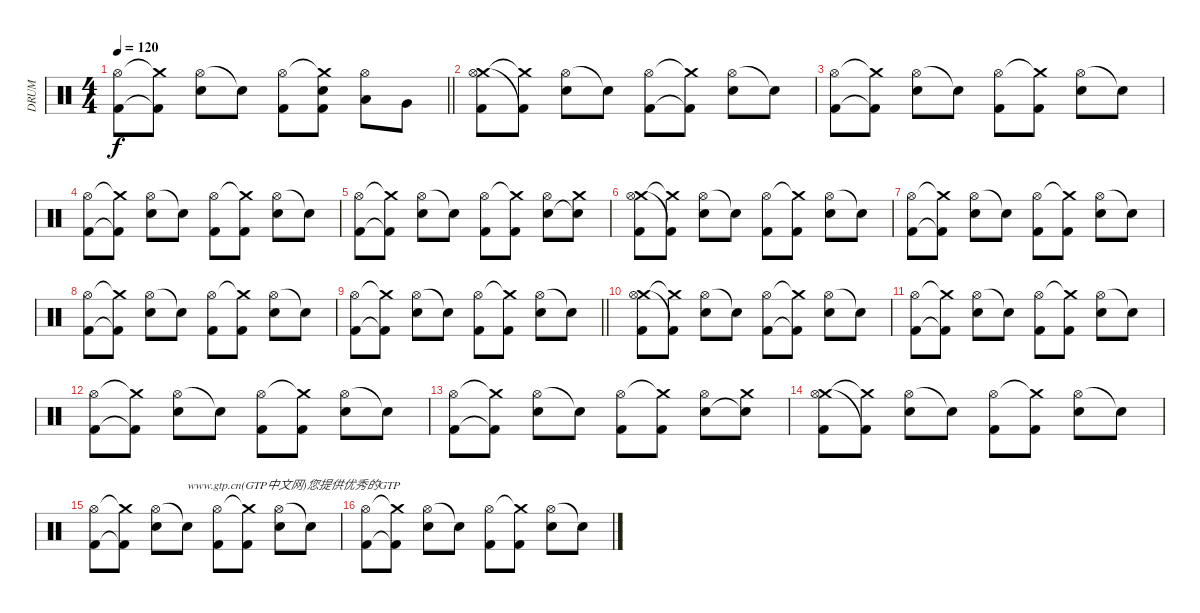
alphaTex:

\track ("DRUM" "DRUM") {instrument percussion}
\staff {score}
\articulation defaults
\ts (4 4)
\tempo 120
\clef neutral
\barLineRight lightlight
\ks c
("Hi-Hat (open)" "Kick (hit) 2").8{dy f} ("Crash medium (hit)"{t} "Kick (hit) 2"{t}).8 ("Hi-Hat (open)" "Electric Snare (hit)").8 "Electric Snare (hit)"{t}.8 ("Hi-Hat (open)" "Kick (hit) 2").8 ("Crash medium (hit)"{t} "Electric Snare (hit)" "Kick (hit) 2").8 ("Hi-Hat (open)" "Low Tom (hit)").8 "Very Low Tom (hit)".8 |
("Crash medium (hit)" "Hi-Hat (open)" "Kick (hit) 2").8 ("Crash medium (hit)"{t} "Kick (hit) 2"{t}).8 ("Hi-Hat (open)" "Electric Snare (hit)").8 "Electric Snare (hit)"{t}.8 ("Hi-Hat (open)" "Kick (hit) 2").8 ("Crash medium (hit)"{t} "Kick (hit) 2"{t}).8 ("Hi-Hat (open)" "Electric Snare (hit)").8 "Electric Snare (hit)"{t}.8 |
("Hi-Hat (open)" "Kick (hit) 2").8 ("Crash medium (hit)"{t} "Kick (hit) 2"{t}).8 ("Hi-Hat (open)" "Electric Snare (hit)").8 "Electric Snare (hit)"{t}.8 ("Hi-Hat (open)" "Kick (hit) 2").8 ("Crash medium (hit)"{t} "Kick (hit) 2").8 ("Hi-Hat (open)" "Electric Snare (hit)").8 "Electric Snare (hit)"{t}.8 |
("Hi-Hat (open)" "Kick (hit) 2").8 ("Crash medium (hit)"{t} "Kick (hit) 2"{t}).8 ("Hi-Hat (open)" "Electric Snare (hit)").8 "Electric Snare (hit)"{t}.8 ("Hi-Hat (open)" "Kick (hit) 2").8 ("Crash medium (hit)"{t} "Kick (hit) 2").8 ("Hi-Hat (open)" "Electric Snare (hit)").8 "Electric Snare (hit)"{t}.8 |
("Hi-Hat (open)" "Kick (hit) 2").8 ("Crash medium (hit)"{t} "Kick (hit) 2"{t}).8 ("Hi-Hat (open)" "Electric Snare (hit)").8 "Electric Snare (hit)"{t}.8 ("Hi-Hat (open)" "Kick (hit) 2").8 ("Crash medium (hit)"{t} "Kick (hit) 2").8 ("Hi-Hat (open)" "Electric Snare (hit)").8 ("Crash medium (hit)" "Electric Snare (hit)"{t}).8 |
("Crash medium (hit)" "Hi-Hat (open)" "Kick (hit) 2").8 ("Crash medium (hit)"{t} "Kick (hit) 2"{t}).8 ("Hi-Hat (open)" "Electric Snare (hit)").8 "Electric Snare (hit)"{t}.8 ("Hi-Hat (open)" "Kick (hit) 2").8 ("Crash medium (hit)"{t} "Kick (hit) 2").8 ("Hi-Hat (open)" "Electric Snare (hit)").8 "Electric Snare (hit)"{t}.8 |
("Hi-Hat (open)" "Kick (hit) 2").8 ("Crash medium (hit)"{t} "Kick (hit) 2"{t}).8 ("Hi-Hat (open)" "Electric Snare (hit)").8 "Electric Snare (hit)"{t}.8 ("Hi-Hat (open)" "Kick (hit) 2").8 ("Crash medium (hit)"{t} "Kick (hit) 2").8 ("Hi-Hat (open)" "Electric Snare (hit)").8 "Electric Snare (hit)"{t}.8 |
("Hi-Hat (open)" "Kick (hit) 2").8 ("Crash medium (hit)"{t} "Kick (hit) 2"{t}).8 ("Hi-Hat (open)" "Electric Snare (hit)").8 "Electric Snare (hit)"{t}.8 ("Hi-Hat (open)" "Kick (hit) 2").8 ("Crash medium (hit)"{t} "Kick (hit) 2").8 ("Hi-Hat (open)" "Electric Snare (hit)").8 "Electric Snare (hit)"{t}.8 |
\barLineRight lightlight
("Hi-Hat (open)" "Kick (hit) 2").8 ("Crash medium (hit)"{t} "Kick (hit) 2"{t}).8 ("Hi-Hat (open)" "Electric Snare (hit)").8 "Electric Snare (hit)"{t}.8 ("Hi-Hat (open)" "Kick (hit) 2").8 ("Crash medium (hit)"{t} "Kick (hit) 2").8 ("Hi-Hat (open)" "Electric Snare (hit)").8 "Electric Snare (hit)"{t}.8 |
("Crash medium (hit)" "Hi-Hat (open)" "Kick (hit) 2").8 ("Crash medium (hit)"{t} "Kick (hit) 2"{t}).8 ("Hi-Hat (open)" "Electric Snare (hit)").8 "Electric Snare (hit)"{t}.8 ("Hi-Hat (open)" "Kick (hit) 2").8 ("Crash medium (hit)"{t} "Kick (hit) 2"{t}).8 ("Hi-Hat (open)" "Electric Snare (hit)").8 "Electric Snare (hit)"{t}.8 |
("Hi-Hat (open)" "Kick (hit) 2").8 ("Crash medium (hit)"{t} "Kick (hit) 2"{t}).8 ("Hi-Hat (open)" "Electric Snare (hit)").8 "Electric Snare (hit)"{t}.8 ("Hi-Hat (open)" "Kick (hit) 2").8 ("Crash medium (hit)"{t} "Kick (hit) 2").8 ("Hi-Hat (open)" "Electric Snare (hit)").8 "Electric Snare (hit)"{t}.8 |
("Hi-Hat (open)" "Kick (hit) 2").8 ("Crash medium (hit)"{t} "Kick (hit) 2"{t}).8 ("Hi-Hat (open)" "Electric Snare (hit)").8 "Electric Snare (hit)"{t}.8 ("Hi-Hat (open)" "Kick (hit) 2").8 ("Crash medium (hit)"{t} "Kick (hit) 2").8 ("Hi-Hat (open)" "Electric Snare (hit)").8 "Electric Snare (hit)"{t}.8 |
("Hi-Hat (open)" "Kick (hit) 2").8 ("Crash medium (hit)"{t} "Kick (hit) 2"{t}).8 ("Hi-Hat (open)" "Electric Snare (hit)").8 "Electric Snare (hit)"{t}.8 ("Hi-Hat (open)" "Kick (hit) 2").8 ("Crash medium (hit)"{t} "Kick (hit) 2").8 ("Hi-Hat (open)" "Electric Snare (hit)").8 ("Crash medium (hit)" "Electric Snare (hit)"{t}).8 |
("Crash medium (hit)" "Hi-Hat (open)" "Kick (hit) 2").8 ("Crash medium (hit)"{t} "Kick (hit) 2"{t}).8 ("Hi-Hat (open)" "Electric Snare (hit)").8 "Electric Snare (hit)"{t}.8 ("Hi-Hat (open)" "Kick (hit) 2").8 ("Crash medium (hit)"{t} "Kick (hit) 2").8 ("Hi-Hat (open)" "Electric Snare (hit)").8 "Electric Snare (hit)"{t}.8 |
("Hi-Hat (open)" "Kick (hit) 2").8 ("Crash medium (hit)"{t} "Kick (hit) 2"{t}).8 ("Hi-Hat (open)" "Electric Snare (hit)").8 "Electric Snare (hit)"{t}.8{txt "www.gtp.cn(GTP中文网)您提供优秀的GTP"} ("Hi-Hat (open)" "Kick (hit) 2").8 ("Crash medium (hit)"{t} "Kick (hit) 2").8 ("Hi-Hat (open)" "Electric Snare (hit)").8 "Electric Snare (hit)"{t}.8 |
("Hi-Hat (open)" "Kick (hit) 2").8 ("Crash medium (hit)"{t} "Kick (hit) 2"{t}).8 ("Hi-Hat (open)" "Electric Snare (hit)").8 "Electric Snare (hit)"{t}.8 ("Hi-Hat (open)" "Kick (hit) 2").8 ("Crash medium (hit)"{t} "Kick (hit) 2").8 ("Hi-Hat (open)" "Electric Snare (hit)").8 "Electric Snare (hit)"{t}.8
